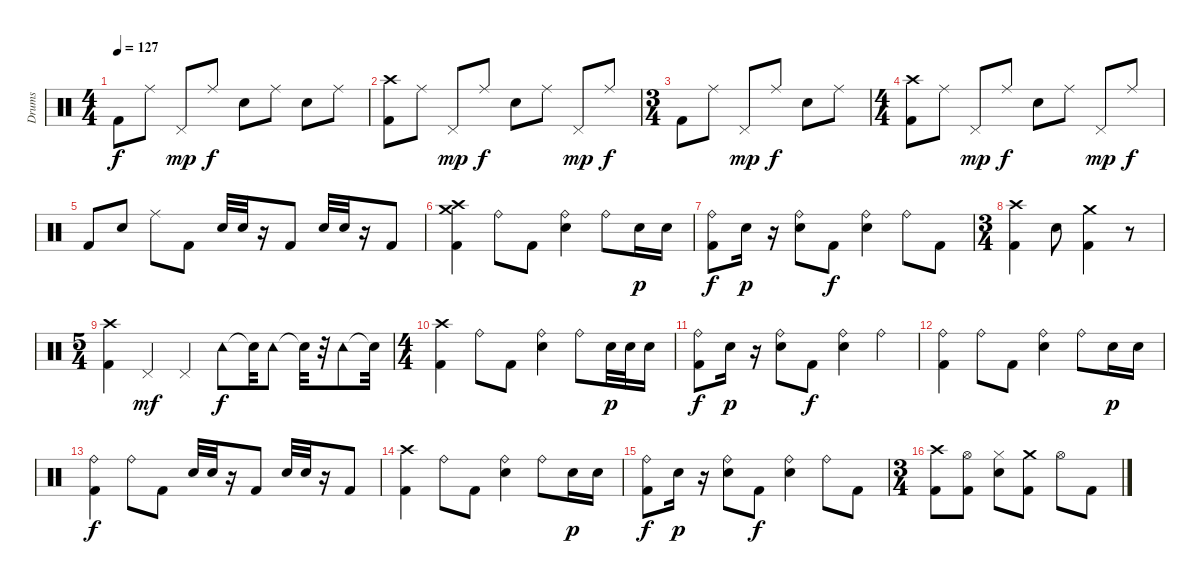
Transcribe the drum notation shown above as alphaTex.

\track ("Drums" "Drums") {instrument percussion}
\staff {score}
\articulation defaults
\ts (4 4)
\tempo 127
\clef neutral
\ks c "Kick (hit) 2".8{dy f} "Ride (middle)".8 "Pedal Hi-Hat (hit)".8{dy mp} "Ride (middle)".8{dy f} "Electric Snare (hit)".8 "Ride (middle)".8 "Electric Snare (hit)".8 "Ride (middle)".8
|
("Crash high (hit)" "Kick (hit) 2").8 "Ride (middle)".8 "Pedal Hi-Hat (hit)".8{dy mp} "Ride (middle)".8{dy f} "Electric Snare (hit)".8 "Ride (middle)".8 "Pedal Hi-Hat (hit)".8{dy mp} "Ride (middle)".8{dy f} |
\ts (3 4)
"Kick (hit) 2".8 "Ride (middle)".8 "Pedal Hi-Hat (hit)".8{dy mp} "Ride (middle)".8{dy f} "Electric Snare (hit)".8 "Ride (middle)".8 |
\ts (4 4)
("Crash high (hit)" "Kick (hit) 2").8 "Ride (middle)".8 "Pedal Hi-Hat (hit)".8{dy mp} "Ride (middle)".8{dy f} "Electric Snare (hit)".8 "Ride (middle)".8 "Pedal Hi-Hat (hit)".8{dy mp} "Ride (middle)".8{dy f} |
"Kick (hit) 2".8 "Electric Snare (hit)".8 "Ride (middle)".8 "Kick (hit) 2".8 "Electric Snare (hit)".32 "Electric Snare (hit)".32 r.16 "Kick (hit) 2".8 "Electric Snare (hit)".32 "Electric Snare (hit)".32 r.16 "Kick (hit) 2".8 |
("Crash high (hit)" "Kick (hit) 2" "Crash medium (hit)").4 "Ride (bell)".8 "Kick (hit) 2".8 ("Ride (bell)" "Electric Snare (hit)").4 "Ride (bell)".8 "Electric Snare (hit)".16{dy p} "Electric Snare (hit)".16 |
("Ride (bell)" "Kick (hit) 2").8{dy f} "Electric Snare (hit)".16{dy p} r.16 ("Ride (bell)" "Electric Snare (hit)").8 "Kick (hit) 2".8{dy f} ("Ride (bell)" "Electric Snare (hit)").4 "Ride (bell)".8 "Kick (hit) 2".8 |
\ts (3 4)
("Crash high (hit)" "Kick (hit) 2").4 "Electric Snare (hit)".8 ("Kick (hit) 2" "Crash medium (hit)").4 r.8 |
\ts (5 4)
("Crash high (hit)" "Kick (hit) 2").4 "Pedal Hi-Hat (hit)".4{dy mf} "Pedal Hi-Hat (hit)".4 "Tambourine (hit)".8{dy f} "Snare (hit)"{t}.32 "Tambourine (hit)".8 "Snare (hit)"{t}.32 r.32 "Tambourine (hit)".8 "Snare (hit)"{t}.32 |
\ts (4 4)
("Kick (hit) 2" "Crash high (hit)").4 "Ride (bell)".8 "Kick (hit) 2".8 ("Ride (bell)" "Electric Snare (hit)").4 "Ride (bell)".8 "Electric Snare (hit)".32{dy p} "Electric Snare (hit)".32 "Electric Snare (hit)".16 |
("Ride (bell)" "Kick (hit) 2").8{dy f} "Electric Snare (hit)".16{dy p} r.16 ("Ride (bell)" "Electric Snare (hit)").8 "Kick (hit) 2".8{dy f} ("Ride (bell)" "Electric Snare (hit)").4 "Ride (bell)".4 |
("Kick (hit) 2" "Ride (bell)").4 "Ride (bell)".8 "Kick (hit) 2".8 ("Ride (bell)" "Electric Snare (hit)").4 "Ride (bell)".8 "Electric Snare (hit)".16{dy p} "Electric Snare (hit)".16 |
("Kick (hit) 2" "Ride (bell)").4{dy f} "Ride (bell)".8 "Kick (hit) 2".8 "Electric Snare (hit)".32 "Electric Snare (hit)".32 r.16 "Kick (hit) 2".8 "Electric Snare (hit)".32 "Electric Snare (hit)".32 r.16 "Kick (hit) 2".8 |
("Kick (hit) 2" "Crash high (hit)").4 "Ride (bell)".8 "Kick (hit) 2".8 ("Ride (bell)" "Electric Snare (hit)").4 "Ride (bell)".8 "Electric Snare (hit)".16{dy p} "Electric Snare (hit)".16 |
("Ride (bell)" "Kick (hit) 2").8{dy f} "Electric Snare (hit)".16{dy p} r.16 ("Ride (bell)" "Electric Snare (hit)").8 "Kick (hit) 2".8{dy f} ("Ride (bell)" "Electric Snare (hit)").4 "Ride (bell)".8 "Kick (hit) 2".8 |
\ts (3 4)
("Crash high (hit)" "Kick (hit) 2").8 ("Kick (hit) 2" "Hi-Hat (open)").8 ("Electric Snare (hit)" "Hi-Hat (closed)").8 ("Crash medium (hit)" "Kick (hit) 2").8 "Hi-Hat (open)".8 "Kick (hit) 2".8
